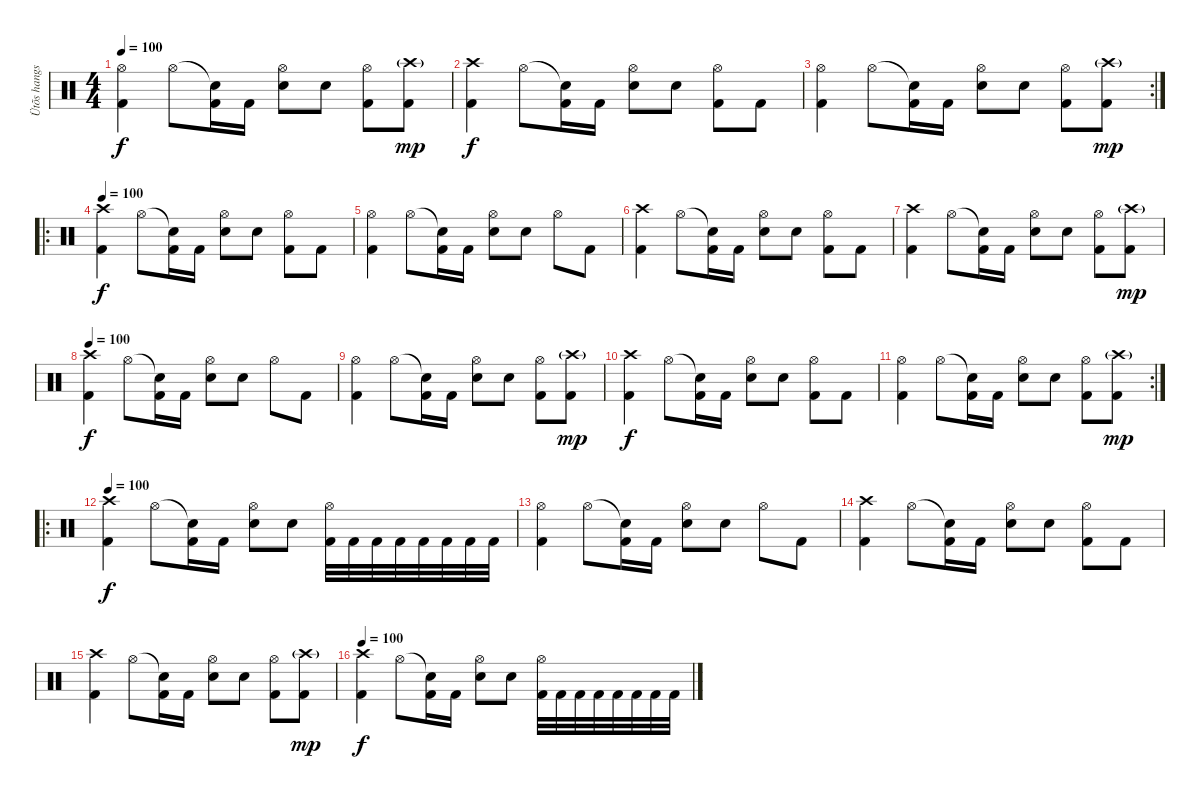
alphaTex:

\track ("Ütõs hangszer" "Ütõs hangs") {instrument percussion}
\staff {score}
\articulation defaults
\ts (4 4)
\tempo 100
\clef neutral
\ks c
("Hi-Hat (open)" "Kick (hit) 2").4{dy f} "Hi-Hat (open)".8 ("Snare (hit)"{t} "Kick (hit) 2").16 "Kick (hit) 2".16 ("Hi-Hat (open)" "Snare (hit) 2").8 "Snare (hit) 2".8 ("Hi-Hat (open)" "Kick (hit) 2").8 ("Crash high (hit)"{g} "Kick (hit) 2").8{dy mp} |
("Crash high (hit)" "Kick (hit) 2").4{dy f} "Hi-Hat (open)".8 ("Snare (hit)"{t} "Kick (hit) 2").16 "Kick (hit) 2".16 ("Hi-Hat (open)" "Snare (hit) 2").8 "Snare (hit) 2".8 ("Hi-Hat (open)" "Kick (hit) 2").8 "Kick (hit) 2".8 |
\rc 2
("Hi-Hat (open)" "Kick (hit) 2").4 "Hi-Hat (open)".8 ("Snare (hit)"{t} "Kick (hit) 2").16 "Kick (hit) 2".16 ("Hi-Hat (open)" "Snare (hit) 2").8 "Snare (hit) 2".8 ("Hi-Hat (open)" "Kick (hit) 2").8 ("Crash high (hit)"{g} "Kick (hit) 2").8{dy mp} |
\ro
\tempo 100
("Crash high (hit)" "Kick (hit) 2").4{dy f} "Hi-Hat (open)".8 ("Snare (hit)"{t} "Kick (hit) 2").16 "Kick (hit) 2".16 ("Hi-Hat (open)" "Snare (hit) 2").8 "Snare (hit) 2".8 ("Hi-Hat (open)" "Kick (hit) 2").8 "Kick (hit) 2".8 |
("Hi-Hat (open)" "Kick (hit) 2").4 "Hi-Hat (open)".8 ("Snare (hit)"{t} "Kick (hit) 2").16 "Kick (hit) 2".16 ("Hi-Hat (open)" "Snare (hit) 2").8 "Snare (hit) 2".8 "Hi-Hat (open)".8 "Kick (hit) 2".8 |
("Crash high (hit)" "Kick (hit) 2").4 "Hi-Hat (open)".8 ("Snare (hit)"{t} "Kick (hit) 2").16 "Kick (hit) 2".16 ("Hi-Hat (open)" "Snare (hit) 2").8 "Snare (hit) 2".8 ("Hi-Hat (open)" "Kick (hit) 2").8 "Kick (hit) 2".8 |
("Crash high (hit)" "Kick (hit) 2").4 "Hi-Hat (open)".8 ("Snare (hit)"{t} "Kick (hit) 2").16 "Kick (hit) 2".16 ("Hi-Hat (open)" "Snare (hit) 2").8 "Snare (hit) 2".8 ("Hi-Hat (open)" "Kick (hit) 2").8 ("Crash high (hit)"{g} "Kick (hit) 2").8{dy mp} |
\tempo 100
("Crash high (hit)" "Kick (hit) 2").4{dy f} "Hi-Hat (open)".8 ("Snare (hit)"{t} "Kick (hit) 2").16 "Kick (hit) 2".16 ("Hi-Hat (open)" "Snare (hit) 2").8 "Snare (hit) 2".8 "Hi-Hat (open)".8 "Kick (hit) 2".8 |
("Hi-Hat (open)" "Kick (hit) 2").4 "Hi-Hat (open)".8 ("Snare (hit)"{t} "Kick (hit) 2").16 "Kick (hit) 2".16 ("Hi-Hat (open)" "Snare (hit) 2").8 "Snare (hit) 2".8 ("Hi-Hat (open)" "Kick (hit) 2").8 ("Crash high (hit)"{g} "Kick (hit) 2").8{dy mp} |
("Crash high (hit)" "Kick (hit) 2").4{dy f} "Hi-Hat (open)".8 ("Snare (hit)"{t} "Kick (hit) 2").16 "Kick (hit) 2".16 ("Hi-Hat (open)" "Snare (hit) 2").8 "Snare (hit) 2".8 ("Hi-Hat (open)" "Kick (hit) 2").8 "Kick (hit) 2".8 |
\rc 2
("Hi-Hat (open)" "Kick (hit) 2").4 "Hi-Hat (open)".8 ("Snare (hit)"{t} "Kick (hit) 2").16 "Kick (hit) 2".16 ("Hi-Hat (open)" "Snare (hit) 2").8 "Snare (hit) 2".8 ("Hi-Hat (open)" "Kick (hit) 2").8 ("Crash high (hit)"{g} "Kick (hit) 2").8{dy mp} |
\ro
\tempo 100
("Crash high (hit)" "Kick (hit) 2").4{dy f} "Hi-Hat (open)".8 ("Snare (hit)"{t} "Kick (hit) 2").16 "Kick (hit) 2".16 ("Hi-Hat (open)" "Snare (hit) 2").8 "Snare (hit) 2".8 ("Hi-Hat (open)" "Kick (hit) 2").32 "Kick (hit) 2".32 "Kick (hit) 2".32 "Kick (hit) 2".32 "Kick (hit) 2".32 "Kick (hit) 2".32 "Kick (hit) 2".32 "Kick (hit) 2".32 |
("Hi-Hat (open)" "Kick (hit) 2").4 "Hi-Hat (open)".8 ("Snare (hit)"{t} "Kick (hit) 2").16 "Kick (hit) 2".16 ("Hi-Hat (open)" "Snare (hit) 2").8 "Snare (hit) 2".8 "Hi-Hat (open)".8 "Kick (hit) 2".8 |
("Crash high (hit)" "Kick (hit) 2").4 "Hi-Hat (open)".8 ("Snare (hit)"{t} "Kick (hit) 2").16 "Kick (hit) 2".16 ("Hi-Hat (open)" "Snare (hit) 2").8 "Snare (hit) 2".8 ("Hi-Hat (open)" "Kick (hit) 2").8 "Kick (hit) 2".8 |
("Crash high (hit)" "Kick (hit) 2").4 "Hi-Hat (open)".8 ("Snare (hit)"{t} "Kick (hit) 2").16 "Kick (hit) 2".16 ("Hi-Hat (open)" "Snare (hit) 2").8 "Snare (hit) 2".8 ("Hi-Hat (open)" "Kick (hit) 2").8 ("Crash high (hit)"{g} "Kick (hit) 2").8{dy mp} |
\tempo 100
("Crash high (hit)" "Kick (hit) 2").4{dy f} "Hi-Hat (open)".8 ("Snare (hit)"{t} "Kick (hit) 2").16 "Kick (hit) 2".16 ("Hi-Hat (open)" "Snare (hit) 2").8 "Snare (hit) 2".8 ("Hi-Hat (open)" "Kick (hit) 2").32 "Kick (hit) 2".32 "Kick (hit) 2".32 "Kick (hit) 2".32 "Kick (hit) 2".32 "Kick (hit) 2".32 "Kick (hit) 2".32 "Kick (hit) 2".32
